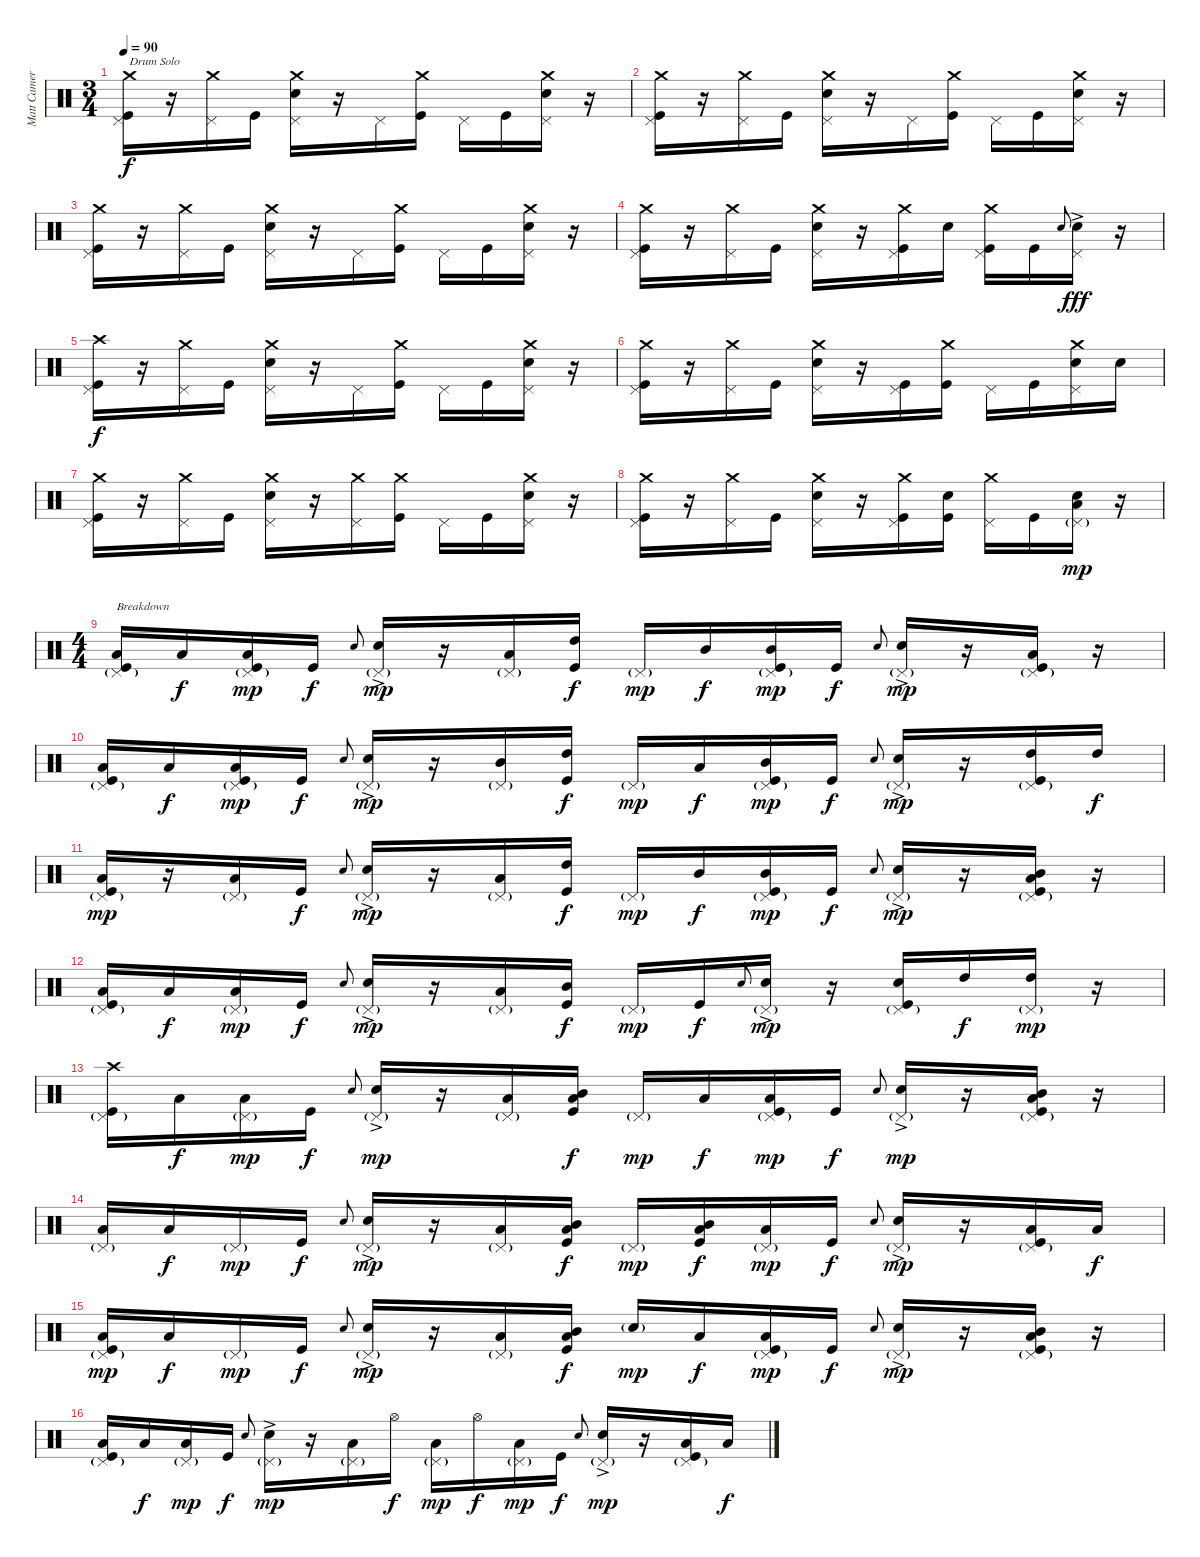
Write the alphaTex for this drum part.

\track ("Matt Cameron" "Matt Camer") {instrument percussion}
\staff {score}
\articulation defaults
\ts (3 4)
\tempo 90
\clef neutral
\ks c
("Crash medium (hit)" "Pedal Hi-Hat (hit)" "Kick (hit)").16{txt "Drum Solo" dy f} r.16 ("Crash medium (hit)" "Pedal Hi-Hat (hit)").16 "Kick (hit)".16 ("Crash medium (hit)" "Electric Snare (hit)" "Pedal Hi-Hat (hit)").16 r.16 "Pedal Hi-Hat (hit)".16 ("Crash medium (hit)" "Kick (hit)").16 "Pedal Hi-Hat (hit)".16 "Kick (hit)".16 ("Crash medium (hit)" "Electric Snare (hit)" "Pedal Hi-Hat (hit)").16 r.16 |
("Crash medium (hit)" "Pedal Hi-Hat (hit)" "Kick (hit)").16 r.16 ("Crash medium (hit)" "Pedal Hi-Hat (hit)").16 "Kick (hit)".16 ("Crash medium (hit)" "Electric Snare (hit)" "Pedal Hi-Hat (hit)").16 r.16 "Pedal Hi-Hat (hit)".16 ("Crash medium (hit)" "Kick (hit)").16 "Pedal Hi-Hat (hit)".16 "Kick (hit)".16 ("Crash medium (hit)" "Electric Snare (hit)" "Pedal Hi-Hat (hit)").16 r.16 |
("Crash medium (hit)" "Pedal Hi-Hat (hit)" "Kick (hit)").16 r.16 ("Crash medium (hit)" "Pedal Hi-Hat (hit)").16 "Kick (hit)".16 ("Crash medium (hit)" "Electric Snare (hit)" "Pedal Hi-Hat (hit)").16 r.16 "Pedal Hi-Hat (hit)".16 ("Crash medium (hit)" "Kick (hit)").16 "Pedal Hi-Hat (hit)".16 "Kick (hit)".16 ("Crash medium (hit)" "Electric Snare (hit)" "Pedal Hi-Hat (hit)").16 r.16 |
("Crash medium (hit)" "Pedal Hi-Hat (hit)" "Kick (hit)").16 r.16 ("Crash medium (hit)" "Pedal Hi-Hat (hit)").16 "Kick (hit)".16 ("Crash medium (hit)" "Electric Snare (hit)" "Pedal Hi-Hat (hit)").16 r.16 ("Crash medium (hit)" "Pedal Hi-Hat (hit)" "Kick (hit)").16 "Electric Snare (hit)".16 ("Crash medium (hit)" "Pedal Hi-Hat (hit)" "Kick (hit)").16 "Kick (hit)".16 "Electric Snare (hit)".8{gr onbeat} ("Electric Snare (hit)"{ac} "Pedal Hi-Hat (hit)").16{dy fff} r.16 |
("Crash high (hit)" "Pedal Hi-Hat (hit)" "Kick (hit)").16{dy f} r.16 ("Crash medium (hit)" "Pedal Hi-Hat (hit)").16 "Kick (hit)".16 ("Crash medium (hit)" "Electric Snare (hit)" "Pedal Hi-Hat (hit)").16 r.16 "Pedal Hi-Hat (hit)".16 ("Crash medium (hit)" "Kick (hit)").16 "Pedal Hi-Hat (hit)".16 "Kick (hit)".16 ("Crash medium (hit)" "Electric Snare (hit)" "Pedal Hi-Hat (hit)").16 r.16 |
("Crash medium (hit)" "Pedal Hi-Hat (hit)" "Kick (hit)").16 r.16 ("Crash medium (hit)" "Pedal Hi-Hat (hit)").16 "Kick (hit)".16 ("Crash medium (hit)" "Electric Snare (hit)" "Pedal Hi-Hat (hit)").16 r.16 ("Pedal Hi-Hat (hit)" "Kick (hit)").16 ("Crash medium (hit)" "Kick (hit)").16 "Pedal Hi-Hat (hit)".16 "Kick (hit)".16 ("Crash medium (hit)" "Electric Snare (hit)" "Pedal Hi-Hat (hit)").16 "Electric Snare (hit)".16 |
("Crash medium (hit)" "Pedal Hi-Hat (hit)" "Kick (hit)").16 r.16 ("Crash medium (hit)" "Pedal Hi-Hat (hit)").16 "Kick (hit)".16 ("Crash medium (hit)" "Electric Snare (hit)" "Pedal Hi-Hat (hit)").16 r.16 ("Crash medium (hit)" "Pedal Hi-Hat (hit)").16 ("Crash medium (hit)" "Kick (hit)").16 "Pedal Hi-Hat (hit)".16 "Kick (hit)".16 ("Crash medium (hit)" "Electric Snare (hit)" "Pedal Hi-Hat (hit)").16 r.16 |
("Crash medium (hit)" "Pedal Hi-Hat (hit)" "Kick (hit)").16 r.16 ("Crash medium (hit)" "Pedal Hi-Hat (hit)").16 "Kick (hit)".16 ("Crash medium (hit)" "Electric Snare (hit)" "Pedal Hi-Hat (hit)").16 r.16 ("Crash medium (hit)" "Pedal Hi-Hat (hit)" "Kick (hit)").16 ("Electric Snare (hit)" "Kick (hit)").16 ("Crash medium (hit)" "Pedal Hi-Hat (hit)").16 "Kick (hit)".16 ("Electric Snare (hit)" "Low Floor Tom (hit)" "Pedal Hi-Hat (hit)"{g}).16{dy mp} r.16 |
\ts (4 4)
("Low Floor Tom (hit)" "Pedal Hi-Hat (hit)"{g} "Kick (hit)").16{txt "Breakdown"} "Low Floor Tom (hit)".16{dy f} ("Low Floor Tom (hit)" "Pedal Hi-Hat (hit)"{g} "Kick (hit)").16{dy mp} "Kick (hit)".16{dy f} "Electric Snare (hit)".8{gr onbeat} ("Electric Snare (hit)"{ac} "Pedal Hi-Hat (hit)"{g}).16{dy mp} r.16 ("Low Floor Tom (hit)" "Pedal Hi-Hat (hit)"{g}).16 ("High Tom (hit)" "Kick (hit)").16{dy f} "Pedal Hi-Hat (hit)"{g}.16{dy mp} "Mid Tom (hit)".16{dy f} ("Mid Tom (hit)" "Pedal Hi-Hat (hit)"{g} "Kick (hit)").16{dy mp} "Kick (hit)".16{dy f} "Electric Snare (hit)".8{gr onbeat} ("Electric Snare (hit)"{ac} "Pedal Hi-Hat (hit)"{g}).16{dy mp} r.16 ("Low Floor Tom (hit)" "Pedal Hi-Hat (hit)"{g} "Kick (hit)").16 r.16 |
("Low Floor Tom (hit)" "Pedal Hi-Hat (hit)"{g} "Kick (hit)").16 "Low Floor Tom (hit)".16{dy f} ("Low Floor Tom (hit)" "Pedal Hi-Hat (hit)"{g} "Kick (hit)").16{dy mp} "Kick (hit)".16{dy f} "Electric Snare (hit)".8{gr onbeat} ("Electric Snare (hit)"{ac} "Pedal Hi-Hat (hit)"{g}).16{dy mp} r.16 ("Mid Tom (hit)" "Pedal Hi-Hat (hit)"{g}).16 ("High Tom (hit)" "Kick (hit)").16{dy f} "Pedal Hi-Hat (hit)"{g}.16{dy mp} "Low Floor Tom (hit)".16{dy f} ("Mid Tom (hit)" "Pedal Hi-Hat (hit)"{g} "Kick (hit)").16{dy mp} "Kick (hit)".16{dy f} "Electric Snare (hit)".8{gr onbeat} ("Electric Snare (hit)"{ac} "Pedal Hi-Hat (hit)"{g}).16{dy mp} r.16 ("High Tom (hit)" "Pedal Hi-Hat (hit)"{g} "Kick (hit)").16 "High Tom (hit)".16{dy f} |
("Low Floor Tom (hit)" "Pedal Hi-Hat (hit)"{g} "Kick (hit)").16{dy mp} r.16 ("Low Floor Tom (hit)" "Pedal Hi-Hat (hit)"{g}).16 "Kick (hit)".16{dy f} "Electric Snare (hit)".8{gr onbeat} ("Electric Snare (hit)"{ac} "Pedal Hi-Hat (hit)"{g}).16{dy mp} r.16 ("Low Floor Tom (hit)" "Pedal Hi-Hat (hit)"{g}).16 ("High Tom (hit)" "Kick (hit)").16{dy f} "Pedal Hi-Hat (hit)"{g}.16{dy mp} "Mid Tom (hit)".16{dy f} ("Mid Tom (hit)" "Pedal Hi-Hat (hit)"{g} "Kick (hit)").16{dy mp} "Kick (hit)".16{dy f} "Electric Snare (hit)".8{gr onbeat} ("Electric Snare (hit)"{ac} "Pedal Hi-Hat (hit)"{g}).16{dy mp} r.16 ("Mid Tom (hit)" "Low Floor Tom (hit)" "Pedal Hi-Hat (hit)"{g} "Kick (hit)").16 r.16 |
("Low Floor Tom (hit)" "Pedal Hi-Hat (hit)"{g} "Kick (hit)").16 "Low Floor Tom (hit)".16{dy f} ("Low Floor Tom (hit)" "Pedal Hi-Hat (hit)"{g}).16{dy mp} "Kick (hit)".16{dy f} "Electric Snare (hit)".8{gr onbeat} ("Electric Snare (hit)"{ac} "Pedal Hi-Hat (hit)"{g}).16{dy mp} r.16 ("Low Floor Tom (hit)" "Pedal Hi-Hat (hit)"{g}).16 ("Mid Tom (hit)" "Kick (hit)").16{dy f} "Pedal Hi-Hat (hit)"{g}.16{dy mp} "Kick (hit)".16{dy f} "Electric Snare (hit)".8{gr onbeat} ("Electric Snare (hit)"{ac} "Pedal Hi-Hat (hit)"{g}).16{dy mp} r.16 ("Electric Snare (hit)" "Pedal Hi-Hat (hit)"{g} "Kick (hit)").16 "High Tom (hit)".16{dy f} ("High Tom (hit)" "Pedal Hi-Hat (hit)"{g}).16{dy mp} r.16 |
("Crash high (hit)" "Pedal Hi-Hat (hit)"{g} "Kick (hit)").16 "Low Floor Tom (hit)".16{dy f} ("Low Floor Tom (hit)" "Pedal Hi-Hat (hit)"{g}).16{dy mp} "Kick (hit)".16{dy f} "Electric Snare (hit)".8{gr onbeat} ("Electric Snare (hit)"{ac} "Pedal Hi-Hat (hit)"{g}).16{dy mp} r.16 ("Low Floor Tom (hit)" "Pedal Hi-Hat (hit)"{g}).16 ("Mid Tom (hit)" "Low Floor Tom (hit)" "Kick (hit)").16{dy f} "Pedal Hi-Hat (hit)"{g}.16{dy mp} "Low Floor Tom (hit)".16{dy f} ("Low Floor Tom (hit)" "Pedal Hi-Hat (hit)"{g} "Kick (hit)").16{dy mp} "Kick (hit)".16{dy f} "Electric Snare (hit)".8{gr onbeat} ("Electric Snare (hit)"{ac} "Pedal Hi-Hat (hit)"{g}).16{dy mp} r.16 ("Mid Tom (hit)" "Low Floor Tom (hit)" "Pedal Hi-Hat (hit)"{g} "Kick (hit)").16 r.16 |
("Low Floor Tom (hit)" "Pedal Hi-Hat (hit)"{g}).16 "Low Floor Tom (hit)".16{dy f} "Pedal Hi-Hat (hit)"{g}.16{dy mp} "Kick (hit)".16{dy f} "Electric Snare (hit)".8{gr onbeat} ("Electric Snare (hit)"{ac} "Pedal Hi-Hat (hit)"{g}).16{dy mp} r.16 ("Low Floor Tom (hit)" "Pedal Hi-Hat (hit)"{g}).16 ("Mid Tom (hit)" "Low Floor Tom (hit)" "Kick (hit)").16{dy f} "Pedal Hi-Hat (hit)"{g}.16{dy mp} ("Mid Tom (hit)" "Low Floor Tom (hit)" "Kick (hit)").16{dy f} ("Low Floor Tom (hit)" "Pedal Hi-Hat (hit)"{g}).16{dy mp} "Kick (hit)".16{dy f} "Electric Snare (hit)".8{gr onbeat} ("Electric Snare (hit)"{ac} "Pedal Hi-Hat (hit)"{g}).16{dy mp} r.16 ("Low Floor Tom (hit)" "Pedal Hi-Hat (hit)"{g} "Kick (hit)").16 "Low Floor Tom (hit)".16{dy f} |
("Low Floor Tom (hit)" "Pedal Hi-Hat (hit)"{g} "Kick (hit)").16{dy mp} "Low Floor Tom (hit)".16{dy f} "Pedal Hi-Hat (hit)"{g}.16{dy mp} "Kick (hit)".16{dy f} "Electric Snare (hit)".8{gr onbeat} ("Electric Snare (hit)"{ac} "Pedal Hi-Hat (hit)"{g}).16{dy mp} r.16 ("Low Floor Tom (hit)" "Pedal Hi-Hat (hit)"{g}).16 ("Mid Tom (hit)" "Low Floor Tom (hit)" "Kick (hit)").16{dy f} "Electric Snare (hit)"{g}.16{dy mp} "Low Floor Tom (hit)".16{dy f} ("Low Floor Tom (hit)" "Pedal Hi-Hat (hit)"{g} "Kick (hit)").16{dy mp} "Kick (hit)".16{dy f} "Electric Snare (hit)".8{gr onbeat} ("Electric Snare (hit)"{ac} "Pedal Hi-Hat (hit)"{g}).16{dy mp} r.16 ("Mid Tom (hit)" "Low Floor Tom (hit)" "Pedal Hi-Hat (hit)"{g} "Kick (hit)").16 r.16 |
("Low Floor Tom (hit)" "Pedal Hi-Hat (hit)"{g} "Kick (hit)").16 "Low Floor Tom (hit)".16{dy f} ("Low Floor Tom (hit)" "Pedal Hi-Hat (hit)"{g}).16{dy mp} "Kick (hit)".16{dy f} "Electric Snare (hit)".8{gr onbeat} ("Electric Snare (hit)"{ac} "Pedal Hi-Hat (hit)"{g}).16{dy mp} r.16 ("Low Floor Tom (hit)" "Pedal Hi-Hat (hit)"{g}).16 "Hi-Hat (open)".16{dy f} ("Low Floor Tom (hit)" "Pedal Hi-Hat (hit)"{g}).16{dy mp} "Hi-Hat (open)".16{dy f} ("Low Floor Tom (hit)" "Pedal Hi-Hat (hit)"{g}).16{dy mp} "Kick (hit)".16{dy f} "Electric Snare (hit)".8{gr onbeat} ("Electric Snare (hit)"{ac} "Pedal Hi-Hat (hit)"{g}).16{dy mp} r.16 ("Low Floor Tom (hit)" "Pedal Hi-Hat (hit)"{g} "Kick (hit)").16 "Low Floor Tom (hit)".16{dy f}
